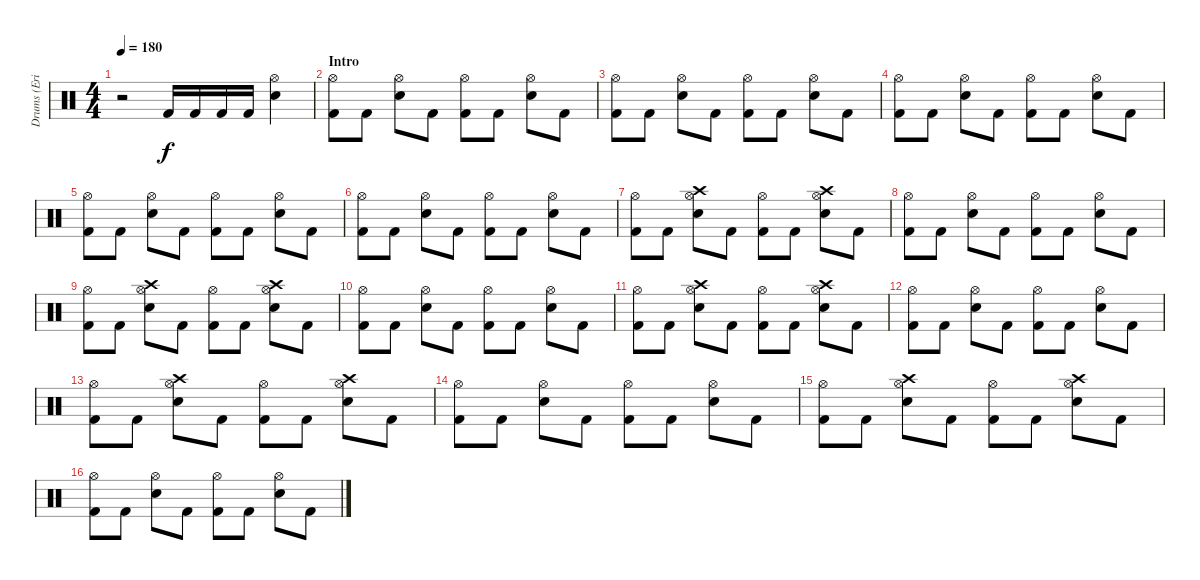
\track ("Drums (Eric Young)" "Drums (Eri") {instrument percussion}
\staff {score}
\articulation defaults
\ts (4 4)
\tempo 180
\clef neutral
\ks c
r.2{dy f} "Kick (hit) 2".16 "Kick (hit) 2".16 "Kick (hit) 2".16 "Kick (hit) 2".16 ("Hi-Hat (open)" "Snare (hit) 2").4 |
\section ("" "Intro")
("Hi-Hat (open)" "Kick (hit) 2").8 "Kick (hit) 2".8 ("Hi-Hat (open)" "Snare (hit) 2").8 "Kick (hit) 2".8 ("Hi-Hat (open)" "Kick (hit) 2").8 "Kick (hit) 2".8 ("Hi-Hat (open)" "Snare (hit) 2").8 "Kick (hit) 2".8 |
("Hi-Hat (open)" "Kick (hit) 2").8 "Kick (hit) 2".8 ("Hi-Hat (open)" "Snare (hit) 2").8 "Kick (hit) 2".8 ("Hi-Hat (open)" "Kick (hit) 2").8 "Kick (hit) 2".8 ("Hi-Hat (open)" "Snare (hit) 2").8 "Kick (hit) 2".8 |
("Hi-Hat (open)" "Kick (hit) 2").8 "Kick (hit) 2".8 ("Hi-Hat (open)" "Snare (hit) 2").8 "Kick (hit) 2".8 ("Hi-Hat (open)" "Kick (hit) 2").8 "Kick (hit) 2".8 ("Hi-Hat (open)" "Snare (hit) 2").8 "Kick (hit) 2".8 |
("Hi-Hat (open)" "Kick (hit) 2").8 "Kick (hit) 2".8 ("Hi-Hat (open)" "Snare (hit) 2").8 "Kick (hit) 2".8 ("Hi-Hat (open)" "Kick (hit) 2").8 "Kick (hit) 2".8 ("Hi-Hat (open)" "Snare (hit) 2").8 "Kick (hit) 2".8 |
("Hi-Hat (open)" "Kick (hit) 2").8 "Kick (hit) 2".8 ("Hi-Hat (open)" "Snare (hit) 2").8 "Kick (hit) 2".8 ("Hi-Hat (open)" "Kick (hit) 2").8 "Kick (hit) 2".8 ("Hi-Hat (open)" "Snare (hit) 2").8 "Kick (hit) 2".8 |
("Hi-Hat (open)" "Kick (hit) 2").8 "Kick (hit) 2".8 ("Crash high (hit)" "Hi-Hat (open)" "Snare (hit) 2").8 "Kick (hit) 2".8 ("Hi-Hat (open)" "Kick (hit) 2").8 "Kick (hit) 2".8 ("Crash high (hit)" "Hi-Hat (open)" "Snare (hit) 2").8 "Kick (hit) 2".8 |
("Hi-Hat (open)" "Kick (hit) 2").8 "Kick (hit) 2".8 ("Hi-Hat (open)" "Snare (hit) 2").8 "Kick (hit) 2".8 ("Hi-Hat (open)" "Kick (hit) 2").8 "Kick (hit) 2".8 ("Hi-Hat (open)" "Snare (hit) 2").8 "Kick (hit) 2".8 |
("Hi-Hat (open)" "Kick (hit) 2").8 "Kick (hit) 2".8 ("Crash high (hit)" "Hi-Hat (open)" "Snare (hit) 2").8 "Kick (hit) 2".8 ("Hi-Hat (open)" "Kick (hit) 2").8 "Kick (hit) 2".8 ("Crash high (hit)" "Hi-Hat (open)" "Snare (hit) 2").8 "Kick (hit) 2".8 |
("Hi-Hat (open)" "Kick (hit) 2").8 "Kick (hit) 2".8 ("Hi-Hat (open)" "Snare (hit) 2").8 "Kick (hit) 2".8 ("Hi-Hat (open)" "Kick (hit) 2").8 "Kick (hit) 2".8 ("Hi-Hat (open)" "Snare (hit) 2").8 "Kick (hit) 2".8 |
("Hi-Hat (open)" "Kick (hit) 2").8 "Kick (hit) 2".8 ("Crash high (hit)" "Hi-Hat (open)" "Snare (hit) 2").8 "Kick (hit) 2".8 ("Hi-Hat (open)" "Kick (hit) 2").8 "Kick (hit) 2".8 ("Crash high (hit)" "Hi-Hat (open)" "Snare (hit) 2").8 "Kick (hit) 2".8 |
("Hi-Hat (open)" "Kick (hit) 2").8 "Kick (hit) 2".8 ("Hi-Hat (open)" "Snare (hit) 2").8 "Kick (hit) 2".8 ("Hi-Hat (open)" "Kick (hit) 2").8 "Kick (hit) 2".8 ("Hi-Hat (open)" "Snare (hit) 2").8 "Kick (hit) 2".8 |
("Hi-Hat (open)" "Kick (hit) 2").8 "Kick (hit) 2".8 ("Crash high (hit)" "Hi-Hat (open)" "Snare (hit) 2").8 "Kick (hit) 2".8 ("Hi-Hat (open)" "Kick (hit) 2").8 "Kick (hit) 2".8 ("Crash high (hit)" "Hi-Hat (open)" "Snare (hit) 2").8 "Kick (hit) 2".8 |
("Hi-Hat (open)" "Kick (hit) 2").8 "Kick (hit) 2".8 ("Hi-Hat (open)" "Snare (hit) 2").8 "Kick (hit) 2".8 ("Hi-Hat (open)" "Kick (hit) 2").8 "Kick (hit) 2".8 ("Hi-Hat (open)" "Snare (hit) 2").8 "Kick (hit) 2".8 |
("Hi-Hat (open)" "Kick (hit) 2").8 "Kick (hit) 2".8 ("Crash high (hit)" "Hi-Hat (open)" "Snare (hit) 2").8 "Kick (hit) 2".8 ("Hi-Hat (open)" "Kick (hit) 2").8 "Kick (hit) 2".8 ("Crash high (hit)" "Hi-Hat (open)" "Snare (hit) 2").8 "Kick (hit) 2".8 |
("Hi-Hat (open)" "Kick (hit) 2").8 "Kick (hit) 2".8 ("Hi-Hat (open)" "Snare (hit) 2").8 "Kick (hit) 2".8 ("Hi-Hat (open)" "Kick (hit) 2").8 "Kick (hit) 2".8 ("Hi-Hat (open)" "Snare (hit) 2").8 "Kick (hit) 2".8
